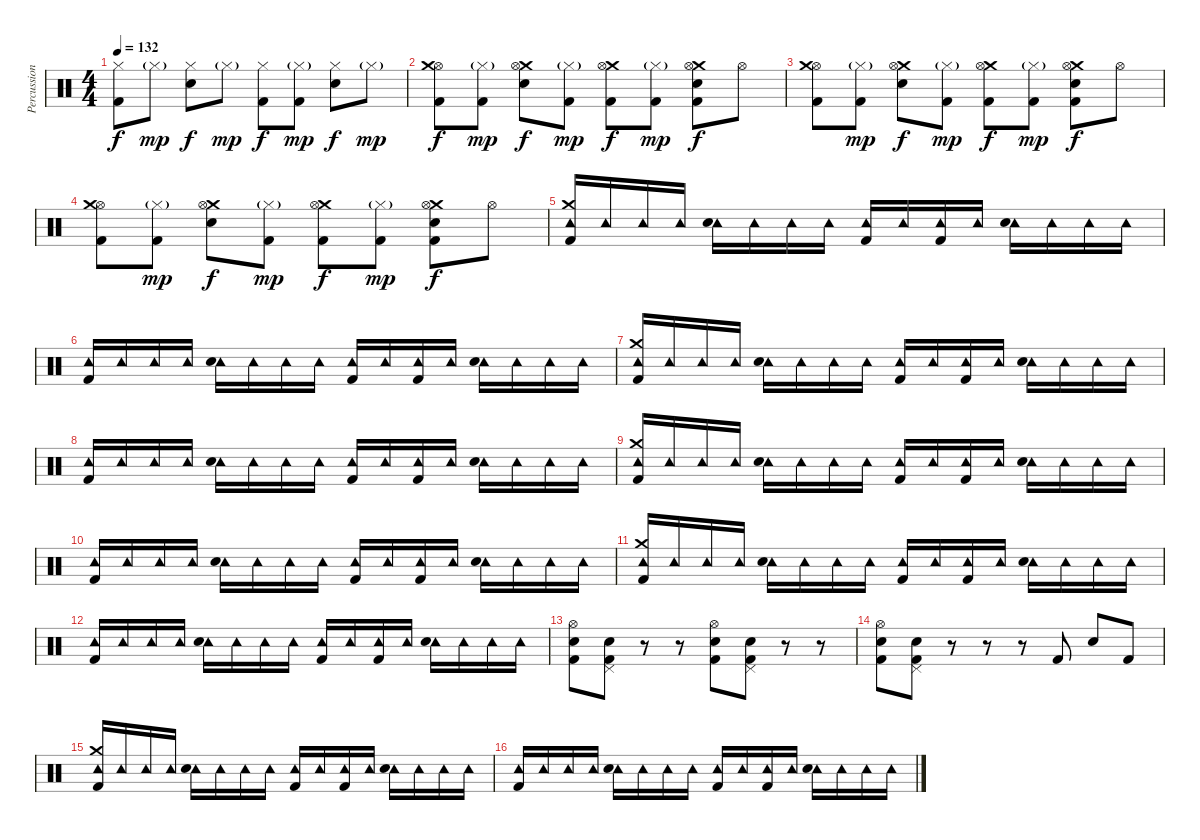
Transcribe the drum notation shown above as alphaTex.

\track ("Percussion" "Percussion") {instrument percussion}
\staff {score}
\articulation defaults
\ts (4 4)
\tempo 132
\clef neutral
\ks c
("Hi-Hat (closed)" "Kick (hit) 2").8{dy f} "Hi-Hat (closed)"{g}.8{dy mp} ("Hi-Hat (closed)" "Snare (hit) 2").8{dy f} "Hi-Hat (closed)"{g}.8{dy mp} ("Hi-Hat (closed)" "Kick (hit) 2").8{dy f} ("Hi-Hat (closed)"{g} "Kick (hit) 2").8{dy mp} ("Hi-Hat (closed)" "Snare (hit) 2").8{dy f} "Hi-Hat (closed)"{g}.8{dy mp} |
("Hi-Hat (open)" "Crash medium (hit)" "Kick (hit) 2").8{dy f} ("Hi-Hat (closed)"{g} "Kick (hit) 2").8{dy mp} ("Crash medium (hit)" "Hi-Hat (open)" "Snare (hit) 2").8{dy f} ("Hi-Hat (closed)"{g} "Kick (hit) 2").8{dy mp} ("Crash medium (hit)" "Hi-Hat (open)" "Kick (hit) 2").8{dy f} ("Hi-Hat (closed)"{g} "Kick (hit) 2").8{dy mp} ("Crash medium (hit)" "Hi-Hat (open)" "Snare (hit) 2" "Kick (hit) 2").8{dy f} "Hi-Hat (open)".8 |
("Hi-Hat (open)" "Crash medium (hit)" "Kick (hit) 2").8 ("Hi-Hat (closed)"{g} "Kick (hit) 2").8{dy mp} ("Crash medium (hit)" "Hi-Hat (open)" "Snare (hit) 2").8{dy f} ("Hi-Hat (closed)"{g} "Kick (hit) 2").8{dy mp} ("Crash medium (hit)" "Hi-Hat (open)" "Kick (hit) 2").8{dy f} ("Hi-Hat (closed)"{g} "Kick (hit) 2").8{dy mp} ("Crash medium (hit)" "Hi-Hat (open)" "Snare (hit) 2" "Kick (hit) 2").8{dy f} "Hi-Hat (open)".8 |
("Hi-Hat (open)" "Crash medium (hit)" "Kick (hit) 2").8 ("Hi-Hat (closed)"{g} "Kick (hit) 2").8{dy mp} ("Crash medium (hit)" "Hi-Hat (open)" "Snare (hit) 2").8{dy f} ("Hi-Hat (closed)"{g} "Kick (hit) 2").8{dy mp} ("Crash medium (hit)" "Hi-Hat (open)" "Kick (hit) 2").8{dy f} ("Hi-Hat (closed)"{g} "Kick (hit) 2").8{dy mp} ("Crash medium (hit)" "Hi-Hat (open)" "Snare (hit) 2" "Kick (hit) 2").8{dy f} "Hi-Hat (open)".8 |
("Crash medium (hit)" "Tambourine (hit)" "Kick (hit) 2").16 "Tambourine (hit)".16 "Tambourine (hit)".16 "Tambourine (hit)".16 ("Tambourine (hit)" "Snare (hit) 2").16 "Tambourine (hit)".16 "Tambourine (hit)".16 "Tambourine (hit)".16 ("Tambourine (hit)" "Kick (hit) 2").16 "Tambourine (hit)".16 ("Tambourine (hit)" "Kick (hit) 2").16 "Tambourine (hit)".16 ("Tambourine (hit)" "Snare (hit) 2").16 "Tambourine (hit)".16 "Tambourine (hit)".16 "Tambourine (hit)".16 |
("Tambourine (hit)" "Kick (hit) 2").16 "Tambourine (hit)".16 "Tambourine (hit)".16 "Tambourine (hit)".16 ("Tambourine (hit)" "Snare (hit) 2").16 "Tambourine (hit)".16 "Tambourine (hit)".16 "Tambourine (hit)".16 ("Tambourine (hit)" "Kick (hit) 2").16 "Tambourine (hit)".16 ("Tambourine (hit)" "Kick (hit) 2").16 "Tambourine (hit)".16 ("Tambourine (hit)" "Snare (hit) 2").16 "Tambourine (hit)".16 "Tambourine (hit)".16 "Tambourine (hit)".16 |
("Crash medium (hit)" "Tambourine (hit)" "Kick (hit) 2").16 "Tambourine (hit)".16 "Tambourine (hit)".16 "Tambourine (hit)".16 ("Tambourine (hit)" "Snare (hit) 2").16 "Tambourine (hit)".16 "Tambourine (hit)".16 "Tambourine (hit)".16 ("Tambourine (hit)" "Kick (hit) 2").16 "Tambourine (hit)".16 ("Tambourine (hit)" "Kick (hit) 2").16 "Tambourine (hit)".16 ("Tambourine (hit)" "Snare (hit) 2").16 "Tambourine (hit)".16 "Tambourine (hit)".16 "Tambourine (hit)".16 |
("Tambourine (hit)" "Kick (hit) 2").16 "Tambourine (hit)".16 "Tambourine (hit)".16 "Tambourine (hit)".16 ("Tambourine (hit)" "Snare (hit) 2").16 "Tambourine (hit)".16 "Tambourine (hit)".16 "Tambourine (hit)".16 ("Tambourine (hit)" "Kick (hit) 2").16 "Tambourine (hit)".16 ("Tambourine (hit)" "Kick (hit) 2").16 "Tambourine (hit)".16 ("Tambourine (hit)" "Snare (hit) 2").16 "Tambourine (hit)".16 "Tambourine (hit)".16 "Tambourine (hit)".16 |
("Crash medium (hit)" "Tambourine (hit)" "Kick (hit) 2").16 "Tambourine (hit)".16 "Tambourine (hit)".16 "Tambourine (hit)".16 ("Tambourine (hit)" "Snare (hit) 2").16 "Tambourine (hit)".16 "Tambourine (hit)".16 "Tambourine (hit)".16 ("Tambourine (hit)" "Kick (hit) 2").16 "Tambourine (hit)".16 ("Tambourine (hit)" "Kick (hit) 2").16 "Tambourine (hit)".16 ("Tambourine (hit)" "Snare (hit) 2").16 "Tambourine (hit)".16 "Tambourine (hit)".16 "Tambourine (hit)".16 |
("Tambourine (hit)" "Kick (hit) 2").16 "Tambourine (hit)".16 "Tambourine (hit)".16 "Tambourine (hit)".16 ("Tambourine (hit)" "Snare (hit) 2").16 "Tambourine (hit)".16 "Tambourine (hit)".16 "Tambourine (hit)".16 ("Tambourine (hit)" "Kick (hit) 2").16 "Tambourine (hit)".16 ("Tambourine (hit)" "Kick (hit) 2").16 "Tambourine (hit)".16 ("Tambourine (hit)" "Snare (hit) 2").16 "Tambourine (hit)".16 "Tambourine (hit)".16 "Tambourine (hit)".16 |
("Crash medium (hit)" "Tambourine (hit)" "Kick (hit) 2").16 "Tambourine (hit)".16 "Tambourine (hit)".16 "Tambourine (hit)".16 ("Tambourine (hit)" "Snare (hit) 2").16 "Tambourine (hit)".16 "Tambourine (hit)".16 "Tambourine (hit)".16 ("Tambourine (hit)" "Kick (hit) 2").16 "Tambourine (hit)".16 ("Tambourine (hit)" "Kick (hit) 2").16 "Tambourine (hit)".16 ("Tambourine (hit)" "Snare (hit) 2").16 "Tambourine (hit)".16 "Tambourine (hit)".16 "Tambourine (hit)".16 |
("Tambourine (hit)" "Kick (hit) 2").16 "Tambourine (hit)".16 "Tambourine (hit)".16 "Tambourine (hit)".16 ("Tambourine (hit)" "Snare (hit) 2").16 "Tambourine (hit)".16 "Tambourine (hit)".16 "Tambourine (hit)".16 ("Tambourine (hit)" "Kick (hit) 2").16 "Tambourine (hit)".16 ("Tambourine (hit)" "Kick (hit) 2").16 "Tambourine (hit)".16 ("Tambourine (hit)" "Snare (hit) 2").16 "Tambourine (hit)".16 "Tambourine (hit)".16 "Tambourine (hit)".16 |
("Hi-Hat (open)" "Snare (hit) 2" "Kick (hit) 2").8 ("Pedal Hi-Hat (hit)" "Snare (hit) 2" "Kick (hit) 2").8 r.8 r.8 ("Hi-Hat (open)" "Snare (hit) 2" "Kick (hit) 2").8 ("Pedal Hi-Hat (hit)" "Snare (hit) 2" "Kick (hit) 2").8 r.8 r.8 |
("Hi-Hat (open)" "Snare (hit) 2" "Kick (hit) 2").8 ("Pedal Hi-Hat (hit)" "Snare (hit) 2" "Kick (hit) 2").8 r.8 r.8 r.8 "Kick (hit) 2".8 "Snare (hit) 2".8 "Kick (hit) 2".8 |
("Crash medium (hit)" "Tambourine (hit)" "Kick (hit) 2").16 "Tambourine (hit)".16 "Tambourine (hit)".16 "Tambourine (hit)".16 ("Tambourine (hit)" "Snare (hit) 2").16 "Tambourine (hit)".16 "Tambourine (hit)".16 "Tambourine (hit)".16 ("Tambourine (hit)" "Kick (hit) 2").16 "Tambourine (hit)".16 ("Tambourine (hit)" "Kick (hit) 2").16 "Tambourine (hit)".16 ("Tambourine (hit)" "Snare (hit) 2").16 "Tambourine (hit)".16 "Tambourine (hit)".16 "Tambourine (hit)".16 |
("Tambourine (hit)" "Kick (hit) 2").16 "Tambourine (hit)".16 "Tambourine (hit)".16 "Tambourine (hit)".16 ("Tambourine (hit)" "Snare (hit) 2").16 "Tambourine (hit)".16 "Tambourine (hit)".16 "Tambourine (hit)".16 ("Tambourine (hit)" "Kick (hit) 2").16 "Tambourine (hit)".16 ("Tambourine (hit)" "Kick (hit) 2").16 "Tambourine (hit)".16 ("Tambourine (hit)" "Snare (hit) 2").16 "Tambourine (hit)".16 "Tambourine (hit)".16 "Tambourine (hit)".16
